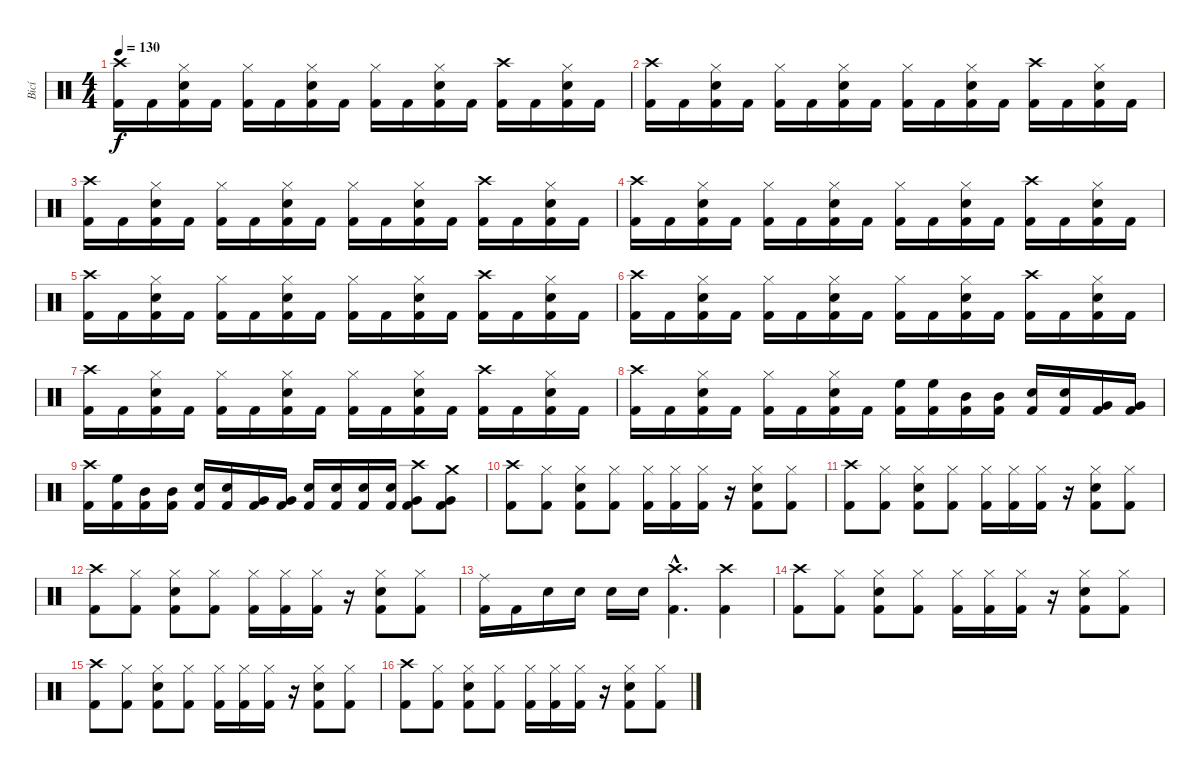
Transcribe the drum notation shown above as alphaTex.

\track ("Bicí" "Bicí") {instrument percussion}
\staff {score}
\articulation defaults
\ts (4 4)
\tempo 130
\clef neutral
\ks c
("Crash high (hit)" "Kick (hit) 2").16{dy f} "Kick (hit) 2".16 ("Hi-Hat (closed)" "Snare (hit) 2" "Kick (hit) 2").16 "Kick (hit) 2".16 ("Hi-Hat (closed)" "Kick (hit) 2").16 "Kick (hit) 2".16 ("Hi-Hat (closed)" "Snare (hit) 2" "Kick (hit) 2").16 "Kick (hit) 2".16 ("Hi-Hat (closed)" "Kick (hit) 2").16 "Kick (hit) 2".16 ("Hi-Hat (closed)" "Snare (hit) 2" "Kick (hit) 2").16 "Kick (hit) 2".16 ("Crash high (hit)" "Kick (hit) 2").16 "Kick (hit) 2".16 ("Hi-Hat (closed)" "Snare (hit) 2" "Kick (hit) 2").16 "Kick (hit) 2".16 |
("Crash high (hit)" "Kick (hit) 2").16 "Kick (hit) 2".16 ("Hi-Hat (closed)" "Snare (hit) 2" "Kick (hit) 2").16 "Kick (hit) 2".16 ("Hi-Hat (closed)" "Kick (hit) 2").16 "Kick (hit) 2".16 ("Hi-Hat (closed)" "Snare (hit) 2" "Kick (hit) 2").16 "Kick (hit) 2".16 ("Hi-Hat (closed)" "Kick (hit) 2").16 "Kick (hit) 2".16 ("Hi-Hat (closed)" "Snare (hit) 2" "Kick (hit) 2").16 "Kick (hit) 2".16 ("Crash high (hit)" "Kick (hit) 2").16 "Kick (hit) 2".16 ("Hi-Hat (closed)" "Snare (hit) 2" "Kick (hit) 2").16 "Kick (hit) 2".16 |
("Crash high (hit)" "Kick (hit) 2").16 "Kick (hit) 2".16 ("Hi-Hat (closed)" "Snare (hit) 2" "Kick (hit) 2").16 "Kick (hit) 2".16 ("Hi-Hat (closed)" "Kick (hit) 2").16 "Kick (hit) 2".16 ("Hi-Hat (closed)" "Snare (hit) 2" "Kick (hit) 2").16 "Kick (hit) 2".16 ("Hi-Hat (closed)" "Kick (hit) 2").16 "Kick (hit) 2".16 ("Hi-Hat (closed)" "Snare (hit) 2" "Kick (hit) 2").16 "Kick (hit) 2".16 ("Crash high (hit)" "Kick (hit) 2").16 "Kick (hit) 2".16 ("Hi-Hat (closed)" "Snare (hit) 2" "Kick (hit) 2").16 "Kick (hit) 2".16 |
("Crash high (hit)" "Kick (hit) 2").16 "Kick (hit) 2".16 ("Hi-Hat (closed)" "Snare (hit) 2" "Kick (hit) 2").16 "Kick (hit) 2".16 ("Hi-Hat (closed)" "Kick (hit) 2").16 "Kick (hit) 2".16 ("Hi-Hat (closed)" "Snare (hit) 2" "Kick (hit) 2").16 "Kick (hit) 2".16 ("Hi-Hat (closed)" "Kick (hit) 2").16 "Kick (hit) 2".16 ("Hi-Hat (closed)" "Snare (hit) 2" "Kick (hit) 2").16 "Kick (hit) 2".16 ("Crash high (hit)" "Kick (hit) 2").16 "Kick (hit) 2".16 ("Hi-Hat (closed)" "Snare (hit) 2" "Kick (hit) 2").16 "Kick (hit) 2".16 |
("Crash high (hit)" "Kick (hit) 2").16 "Kick (hit) 2".16 ("Hi-Hat (closed)" "Snare (hit) 2" "Kick (hit) 2").16 "Kick (hit) 2".16 ("Hi-Hat (closed)" "Kick (hit) 2").16 "Kick (hit) 2".16 ("Hi-Hat (closed)" "Snare (hit) 2" "Kick (hit) 2").16 "Kick (hit) 2".16 ("Hi-Hat (closed)" "Kick (hit) 2").16 "Kick (hit) 2".16 ("Hi-Hat (closed)" "Snare (hit) 2" "Kick (hit) 2").16 "Kick (hit) 2".16 ("Crash high (hit)" "Kick (hit) 2").16 "Kick (hit) 2".16 ("Hi-Hat (closed)" "Snare (hit) 2" "Kick (hit) 2").16 "Kick (hit) 2".16 |
("Crash high (hit)" "Kick (hit) 2").16 "Kick (hit) 2".16 ("Hi-Hat (closed)" "Snare (hit) 2" "Kick (hit) 2").16 "Kick (hit) 2".16 ("Hi-Hat (closed)" "Kick (hit) 2").16 "Kick (hit) 2".16 ("Hi-Hat (closed)" "Snare (hit) 2" "Kick (hit) 2").16 "Kick (hit) 2".16 ("Hi-Hat (closed)" "Kick (hit) 2").16 "Kick (hit) 2".16 ("Hi-Hat (closed)" "Snare (hit) 2" "Kick (hit) 2").16 "Kick (hit) 2".16 ("Crash high (hit)" "Kick (hit) 2").16 "Kick (hit) 2".16 ("Hi-Hat (closed)" "Snare (hit) 2" "Kick (hit) 2").16 "Kick (hit) 2".16 |
("Crash high (hit)" "Kick (hit) 2").16 "Kick (hit) 2".16 ("Hi-Hat (closed)" "Snare (hit) 2" "Kick (hit) 2").16 "Kick (hit) 2".16 ("Hi-Hat (closed)" "Kick (hit) 2").16 "Kick (hit) 2".16 ("Hi-Hat (closed)" "Snare (hit) 2" "Kick (hit) 2").16 "Kick (hit) 2".16 ("Hi-Hat (closed)" "Kick (hit) 2").16 "Kick (hit) 2".16 ("Hi-Hat (closed)" "Snare (hit) 2" "Kick (hit) 2").16 "Kick (hit) 2".16 ("Crash high (hit)" "Kick (hit) 2").16 "Kick (hit) 2".16 ("Hi-Hat (closed)" "Snare (hit) 2" "Kick (hit) 2").16 "Kick (hit) 2".16 |
("Crash high (hit)" "Kick (hit) 2").16 "Kick (hit) 2".16 ("Hi-Hat (closed)" "Snare (hit) 2" "Kick (hit) 2").16 "Kick (hit) 2".16 ("Hi-Hat (closed)" "Kick (hit) 2").16 "Kick (hit) 2".16 ("Hi-Hat (closed)" "Snare (hit) 2" "Kick (hit) 2").16 "Kick (hit) 2".16 ("High Floor Tom (hit)" "Kick (hit) 2").16 ("High Floor Tom (hit)" "Kick (hit) 2").16 ("Mid Tom (hit)" "Kick (hit) 2").16 ("Mid Tom (hit)" "Kick (hit) 2").16 ("Snare (hit) 2" "Kick (hit) 2").16 ("Snare (hit) 2" "Kick (hit) 2").16 ("Very Low Tom (hit)" "Kick (hit) 2").16 ("Very Low Tom (hit)" "Kick (hit) 2").16 |
("Crash high (hit)" "Kick (hit) 2").16 ("High Floor Tom (hit)" "Kick (hit) 2").16 ("Mid Tom (hit)" "Kick (hit) 2").16 ("Mid Tom (hit)" "Kick (hit) 2").16 ("Snare (hit) 2" "Kick (hit) 2").16 ("Snare (hit) 2" "Kick (hit) 2").16 ("Very Low Tom (hit)" "Kick (hit) 2").16 ("Very Low Tom (hit)" "Kick (hit) 2").16 ("Snare (hit) 2" "Kick (hit) 2").16 ("Snare (hit) 2" "Kick (hit) 2").16 ("Snare (hit) 2" "Kick (hit) 2").16 ("Snare (hit) 2" "Kick (hit) 2").16 ("Crash high (hit)" "Very Low Tom (hit)" "Kick (hit) 2").8 ("Crash medium (hit)" "Very Low Tom (hit)" "Kick (hit) 2").8 |
("Crash high (hit)" "Kick (hit) 2").8 ("Hi-Hat (closed)" "Kick (hit) 2").8 ("Hi-Hat (closed)" "Snare (hit) 2" "Kick (hit) 2").8 ("Hi-Hat (closed)" "Kick (hit) 2").8 ("Hi-Hat (closed)" "Kick (hit) 2").16 ("Hi-Hat (closed)" "Kick (hit) 2").16 ("Hi-Hat (closed)" "Kick (hit) 2").16 r.16 ("Hi-Hat (closed)" "Snare (hit) 2" "Kick (hit) 2").8 ("Hi-Hat (closed)" "Kick (hit) 2").8 |
("Crash high (hit)" "Kick (hit) 2").8 ("Hi-Hat (closed)" "Kick (hit) 2").8 ("Hi-Hat (closed)" "Snare (hit) 2" "Kick (hit) 2").8 ("Hi-Hat (closed)" "Kick (hit) 2").8 ("Hi-Hat (closed)" "Kick (hit) 2").16 ("Hi-Hat (closed)" "Kick (hit) 2").16 ("Hi-Hat (closed)" "Kick (hit) 2").16 r.16 ("Hi-Hat (closed)" "Snare (hit) 2" "Kick (hit) 2").8 ("Hi-Hat (closed)" "Kick (hit) 2").8 |
("Crash high (hit)" "Kick (hit) 2").8 ("Hi-Hat (closed)" "Kick (hit) 2").8 ("Hi-Hat (closed)" "Snare (hit) 2" "Kick (hit) 2").8 ("Hi-Hat (closed)" "Kick (hit) 2").8 ("Hi-Hat (closed)" "Kick (hit) 2").16 ("Hi-Hat (closed)" "Kick (hit) 2").16 ("Hi-Hat (closed)" "Kick (hit) 2").16 r.16 ("Hi-Hat (closed)" "Snare (hit) 2" "Kick (hit) 2").8 ("Hi-Hat (closed)" "Kick (hit) 2").8 |
("Ride (middle)" "Kick (hit) 2").16 "Kick (hit) 2".16 "Snare (hit) 2".16 "Snare (hit) 2".16 "Snare (hit) 2".16 "Snare (hit) 2".16 ("Crash high (hit)"{hac} "Kick (hit) 2"{hac}).4{d} ("Crash high (hit)" "Kick (hit) 2").4 |
("Crash high (hit)" "Kick (hit) 2").8 ("Hi-Hat (closed)" "Kick (hit) 2").8 ("Hi-Hat (closed)" "Snare (hit) 2" "Kick (hit) 2").8 ("Hi-Hat (closed)" "Kick (hit) 2").8 ("Hi-Hat (closed)" "Kick (hit) 2").16 ("Hi-Hat (closed)" "Kick (hit) 2").16 ("Hi-Hat (closed)" "Kick (hit) 2").16 r.16 ("Hi-Hat (closed)" "Snare (hit) 2" "Kick (hit) 2").8 ("Hi-Hat (closed)" "Kick (hit) 2").8 |
("Crash high (hit)" "Kick (hit) 2").8 ("Hi-Hat (closed)" "Kick (hit) 2").8 ("Hi-Hat (closed)" "Snare (hit) 2" "Kick (hit) 2").8 ("Hi-Hat (closed)" "Kick (hit) 2").8 ("Hi-Hat (closed)" "Kick (hit) 2").16 ("Hi-Hat (closed)" "Kick (hit) 2").16 ("Hi-Hat (closed)" "Kick (hit) 2").16 r.16 ("Hi-Hat (closed)" "Snare (hit) 2" "Kick (hit) 2").8 ("Hi-Hat (closed)" "Kick (hit) 2").8 |
("Crash high (hit)" "Kick (hit) 2").8 ("Hi-Hat (closed)" "Kick (hit) 2").8 ("Hi-Hat (closed)" "Snare (hit) 2" "Kick (hit) 2").8 ("Hi-Hat (closed)" "Kick (hit) 2").8 ("Hi-Hat (closed)" "Kick (hit) 2").16 ("Hi-Hat (closed)" "Kick (hit) 2").16 ("Hi-Hat (closed)" "Kick (hit) 2").16 r.16 ("Hi-Hat (closed)" "Snare (hit) 2" "Kick (hit) 2").8 ("Hi-Hat (closed)" "Kick (hit) 2").8
